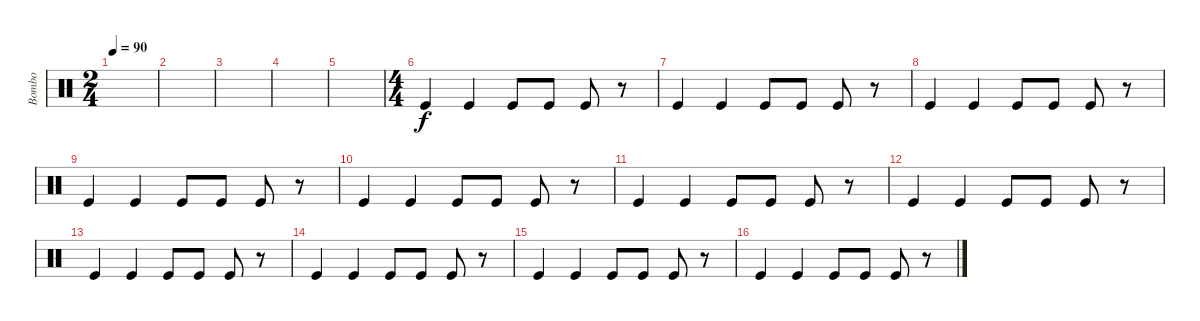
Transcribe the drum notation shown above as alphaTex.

\track ("Bombo" "Bombo") {instrument percussion}
\staff {score}
\articulation defaults
\ts (2 4)
\tempo 90
\clef neutral
\ks c
|
|
|
|
|
\ts (4 4)
"Kick (hit)".4 "Kick (hit)".4 "Kick (hit)".8 "Kick (hit)".8 "Kick (hit)".8 r.8 |
"Kick (hit)".4 "Kick (hit)".4 "Kick (hit)".8 "Kick (hit)".8 "Kick (hit)".8 r.8 |
"Kick (hit)".4 "Kick (hit)".4 "Kick (hit)".8 "Kick (hit)".8 "Kick (hit)".8 r.8 |
"Kick (hit)".4 "Kick (hit)".4 "Kick (hit)".8 "Kick (hit)".8 "Kick (hit)".8 r.8 |
"Kick (hit)".4 "Kick (hit)".4 "Kick (hit)".8 "Kick (hit)".8 "Kick (hit)".8 r.8 |
"Kick (hit)".4 "Kick (hit)".4 "Kick (hit)".8 "Kick (hit)".8 "Kick (hit)".8 r.8 |
"Kick (hit)".4 "Kick (hit)".4 "Kick (hit)".8 "Kick (hit)".8 "Kick (hit)".8 r.8 |
"Kick (hit)".4 "Kick (hit)".4 "Kick (hit)".8 "Kick (hit)".8 "Kick (hit)".8 r.8 |
"Kick (hit)".4 "Kick (hit)".4 "Kick (hit)".8 "Kick (hit)".8 "Kick (hit)".8 r.8 |
"Kick (hit)".4 "Kick (hit)".4 "Kick (hit)".8 "Kick (hit)".8 "Kick (hit)".8 r.8 |
"Kick (hit)".4 "Kick (hit)".4 "Kick (hit)".8 "Kick (hit)".8 "Kick (hit)".8 r.8
